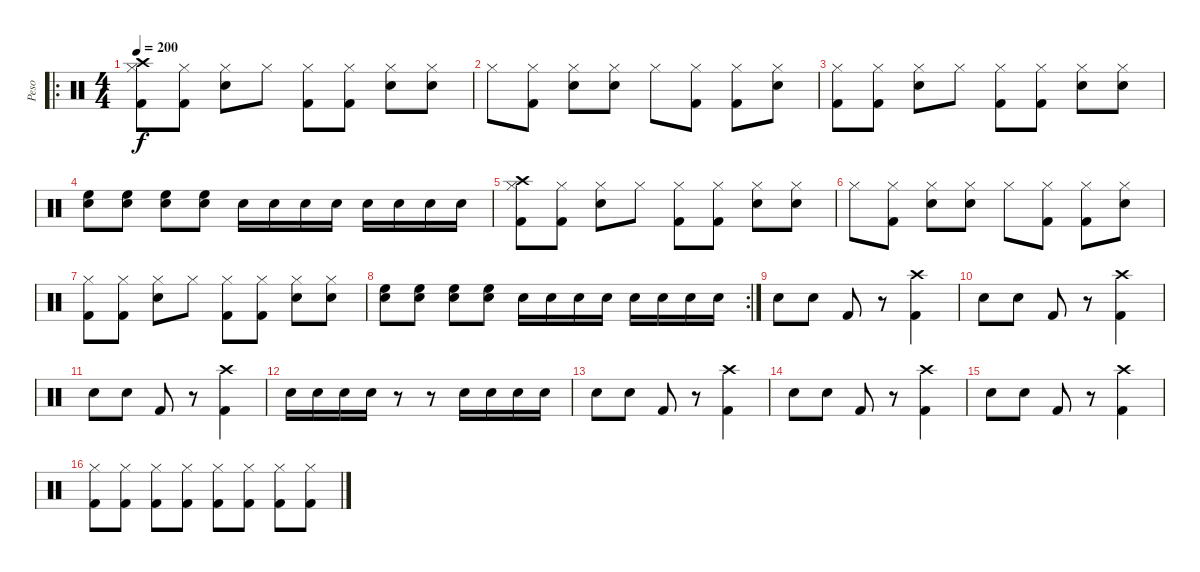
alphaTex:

\track ("Peso" "Peso") {instrument percussion}
\staff {score}
\articulation defaults
\ro
\ts (4 4)
\tempo 200
\clef neutral
\ks c
("Crash high (hit)" "Hi-Hat (closed)" "Kick (hit) 2").8{dy f} ("Hi-Hat (closed)" "Kick (hit) 2").8 ("Hi-Hat (closed)" "Snare (hit) 2").8 "Hi-Hat (closed)".8 ("Hi-Hat (closed)" "Kick (hit) 2").8 ("Hi-Hat (closed)" "Kick (hit) 2").8 ("Hi-Hat (closed)" "Snare (hit) 2").8 ("Hi-Hat (closed)" "Snare (hit) 2").8 |
"Hi-Hat (closed)".8 ("Hi-Hat (closed)" "Kick (hit) 2").8 ("Hi-Hat (closed)" "Snare (hit) 2").8 ("Hi-Hat (closed)" "Snare (hit) 2").8 "Hi-Hat (closed)".8 ("Hi-Hat (closed)" "Kick (hit) 2").8 ("Hi-Hat (closed)" "Kick (hit) 2").8 ("Hi-Hat (closed)" "Snare (hit) 2").8 |
("Hi-Hat (closed)" "Kick (hit) 2").8 ("Hi-Hat (closed)" "Kick (hit) 2").8 ("Hi-Hat (closed)" "Snare (hit) 2").8 "Hi-Hat (closed)".8 ("Hi-Hat (closed)" "Kick (hit) 2").8 ("Hi-Hat (closed)" "Kick (hit) 2").8 ("Hi-Hat (closed)" "Snare (hit) 2").8 ("Hi-Hat (closed)" "Snare (hit) 2").8 |
("High Floor Tom (hit)" "Snare (hit) 2").8 ("High Floor Tom (hit)" "Snare (hit) 2").8 ("High Floor Tom (hit)" "Snare (hit) 2").8 ("High Floor Tom (hit)" "Snare (hit) 2").8 "Snare (hit) 2".16 "Snare (hit) 2".16 "Snare (hit) 2".16 "Snare (hit) 2".16 "Snare (hit) 2".16 "Snare (hit) 2".16 "Snare (hit) 2".16 "Snare (hit) 2".16 |
("Crash high (hit)" "Hi-Hat (closed)" "Kick (hit) 2").8 ("Hi-Hat (closed)" "Kick (hit) 2").8 ("Hi-Hat (closed)" "Snare (hit) 2").8 "Hi-Hat (closed)".8 ("Hi-Hat (closed)" "Kick (hit) 2").8 ("Hi-Hat (closed)" "Kick (hit) 2").8 ("Hi-Hat (closed)" "Snare (hit) 2").8 ("Hi-Hat (closed)" "Snare (hit) 2").8 |
"Hi-Hat (closed)".8 ("Hi-Hat (closed)" "Kick (hit) 2").8 ("Hi-Hat (closed)" "Snare (hit) 2").8 ("Hi-Hat (closed)" "Snare (hit) 2").8 "Hi-Hat (closed)".8 ("Hi-Hat (closed)" "Kick (hit) 2").8 ("Hi-Hat (closed)" "Kick (hit) 2").8 ("Hi-Hat (closed)" "Snare (hit) 2").8 |
("Hi-Hat (closed)" "Kick (hit) 2").8 ("Hi-Hat (closed)" "Kick (hit) 2").8 ("Hi-Hat (closed)" "Snare (hit) 2").8 "Hi-Hat (closed)".8 ("Hi-Hat (closed)" "Kick (hit) 2").8 ("Hi-Hat (closed)" "Kick (hit) 2").8 ("Hi-Hat (closed)" "Snare (hit) 2").8 ("Hi-Hat (closed)" "Snare (hit) 2").8 |
\rc 2
("High Floor Tom (hit)" "Snare (hit) 2").8 ("High Floor Tom (hit)" "Snare (hit) 2").8 ("High Floor Tom (hit)" "Snare (hit) 2").8 ("High Floor Tom (hit)" "Snare (hit) 2").8 "Snare (hit) 2".16 "Snare (hit) 2".16 "Snare (hit) 2".16 "Snare (hit) 2".16 "Snare (hit) 2".16 "Snare (hit) 2".16 "Snare (hit) 2".16 "Snare (hit) 2".16 |
"Snare (hit) 2".8 "Snare (hit) 2".8 "Kick (hit) 2".8 r.8 ("Crash high (hit)" "Kick (hit) 2").4 |
"Snare (hit) 2".8 "Snare (hit) 2".8 "Kick (hit) 2".8 r.8 ("Crash high (hit)" "Kick (hit) 2").4 |
"Snare (hit) 2".8 "Snare (hit) 2".8 "Kick (hit) 2".8 r.8 ("Crash high (hit)" "Kick (hit) 2").4 |
"Snare (hit) 2".16 "Snare (hit) 2".16 "Snare (hit) 2".16 "Snare (hit) 2".16 r.8 r.8 "Snare (hit) 2".16 "Snare (hit) 2".16 "Snare (hit) 2".16 "Snare (hit) 2".16 |
"Snare (hit) 2".8 "Snare (hit) 2".8 "Kick (hit) 2".8 r.8 ("Crash high (hit)" "Kick (hit) 2").4 |
"Snare (hit) 2".8 "Snare (hit) 2".8 "Kick (hit) 2".8 r.8 ("Crash high (hit)" "Kick (hit) 2").4 |
"Snare (hit) 2".8 "Snare (hit) 2".8 "Kick (hit) 2".8 r.8 ("Crash high (hit)" "Kick (hit) 2").4 |
("Hi-Hat (closed)" "Kick (hit) 2").8 ("Hi-Hat (closed)"{x} "Kick (hit) 2"{x}).8 ("Hi-Hat (closed)" "Kick (hit) 2").8 ("Hi-Hat (closed)"{x} "Kick (hit) 2"{x}).8 ("Hi-Hat (closed)" "Kick (hit) 2").8 ("Hi-Hat (closed)"{x} "Kick (hit) 2"{x}).8 ("Hi-Hat (closed)" "Kick (hit) 2").8 ("Hi-Hat (closed)"{x} "Kick (hit) 2"{x}).8
